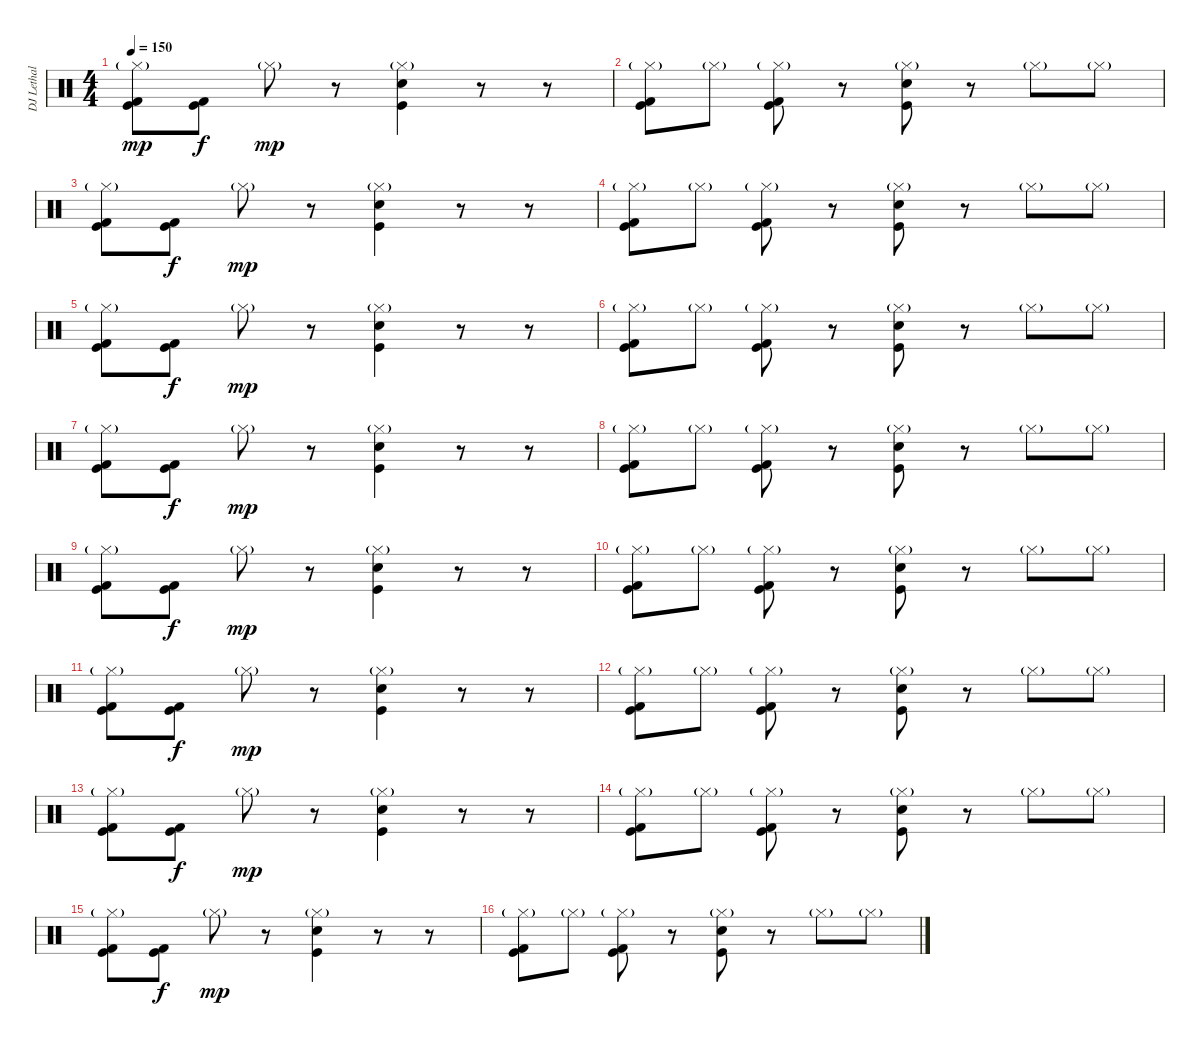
\track ("DJ Lethal (Beats 2)" "DJ Lethal ") {instrument percussion}
\staff {score}
\articulation defaults
\ts (4 4)
\tempo 150
\clef neutral
\ks c
("Hi-Hat (closed)"{g} "Kick (hit) 2" "Kick (hit)").8{dy mp} ("Kick (hit) 2" "Kick (hit)").8{dy f} "Hi-Hat (closed)"{g}.8{dy mp} r.8 ("Hi-Hat (closed)"{g} "Snare (hit) 2" "Kick (hit)").4 r.8 r.8 |
("Hi-Hat (closed)"{g} "Kick (hit) 2" "Kick (hit)").8 "Hi-Hat (closed)"{g}.8 ("Hi-Hat (closed)"{g} "Kick (hit) 2" "Kick (hit)").8 r.8 ("Hi-Hat (closed)"{g} "Snare (hit) 2" "Kick (hit)").8 r.8 "Hi-Hat (closed)"{g}.8 "Hi-Hat (closed)"{g}.8 |
("Hi-Hat (closed)"{g} "Kick (hit) 2" "Kick (hit)").8 ("Kick (hit) 2" "Kick (hit)").8{dy f} "Hi-Hat (closed)"{g}.8{dy mp} r.8 ("Hi-Hat (closed)"{g} "Snare (hit) 2" "Kick (hit)").4 r.8 r.8 |
("Hi-Hat (closed)"{g} "Kick (hit) 2" "Kick (hit)").8 "Hi-Hat (closed)"{g}.8 ("Hi-Hat (closed)"{g} "Kick (hit) 2" "Kick (hit)").8 r.8 ("Hi-Hat (closed)"{g} "Snare (hit) 2" "Kick (hit)").8 r.8 "Hi-Hat (closed)"{g}.8 "Hi-Hat (closed)"{g}.8 |
("Hi-Hat (closed)"{g} "Kick (hit) 2" "Kick (hit)").8 ("Kick (hit) 2" "Kick (hit)").8{dy f} "Hi-Hat (closed)"{g}.8{dy mp} r.8 ("Hi-Hat (closed)"{g} "Snare (hit) 2" "Kick (hit)").4 r.8 r.8 |
("Hi-Hat (closed)"{g} "Kick (hit) 2" "Kick (hit)").8 "Hi-Hat (closed)"{g}.8 ("Hi-Hat (closed)"{g} "Kick (hit) 2" "Kick (hit)").8 r.8 ("Hi-Hat (closed)"{g} "Snare (hit) 2" "Kick (hit)").8 r.8 "Hi-Hat (closed)"{g}.8 "Hi-Hat (closed)"{g}.8 |
("Hi-Hat (closed)"{g} "Kick (hit) 2" "Kick (hit)").8 ("Kick (hit) 2" "Kick (hit)").8{dy f} "Hi-Hat (closed)"{g}.8{dy mp} r.8 ("Hi-Hat (closed)"{g} "Snare (hit) 2" "Kick (hit)").4 r.8 r.8 |
("Hi-Hat (closed)"{g} "Kick (hit) 2" "Kick (hit)").8 "Hi-Hat (closed)"{g}.8 ("Hi-Hat (closed)"{g} "Kick (hit) 2" "Kick (hit)").8 r.8 ("Hi-Hat (closed)"{g} "Snare (hit) 2" "Kick (hit)").8 r.8 "Hi-Hat (closed)"{g}.8 "Hi-Hat (closed)"{g}.8 |
("Hi-Hat (closed)"{g} "Kick (hit) 2" "Kick (hit)").8 ("Kick (hit) 2" "Kick (hit)").8{dy f} "Hi-Hat (closed)"{g}.8{dy mp} r.8 ("Hi-Hat (closed)"{g} "Snare (hit) 2" "Kick (hit)").4 r.8 r.8 |
("Hi-Hat (closed)"{g} "Kick (hit) 2" "Kick (hit)").8 "Hi-Hat (closed)"{g}.8 ("Hi-Hat (closed)"{g} "Kick (hit) 2" "Kick (hit)").8 r.8 ("Hi-Hat (closed)"{g} "Snare (hit) 2" "Kick (hit)").8 r.8 "Hi-Hat (closed)"{g}.8 "Hi-Hat (closed)"{g}.8 |
("Hi-Hat (closed)"{g} "Kick (hit) 2" "Kick (hit)").8 ("Kick (hit) 2" "Kick (hit)").8{dy f} "Hi-Hat (closed)"{g}.8{dy mp} r.8 ("Hi-Hat (closed)"{g} "Snare (hit) 2" "Kick (hit)").4 r.8 r.8 |
("Hi-Hat (closed)"{g} "Kick (hit) 2" "Kick (hit)").8 "Hi-Hat (closed)"{g}.8 ("Hi-Hat (closed)"{g} "Kick (hit) 2" "Kick (hit)").8 r.8 ("Hi-Hat (closed)"{g} "Snare (hit) 2" "Kick (hit)").8 r.8 "Hi-Hat (closed)"{g}.8 "Hi-Hat (closed)"{g}.8 |
("Hi-Hat (closed)"{g} "Kick (hit) 2" "Kick (hit)").8 ("Kick (hit) 2" "Kick (hit)").8{dy f} "Hi-Hat (closed)"{g}.8{dy mp} r.8 ("Hi-Hat (closed)"{g} "Snare (hit) 2" "Kick (hit)").4 r.8 r.8 |
("Hi-Hat (closed)"{g} "Kick (hit) 2" "Kick (hit)").8 "Hi-Hat (closed)"{g}.8 ("Hi-Hat (closed)"{g} "Kick (hit) 2" "Kick (hit)").8 r.8 ("Hi-Hat (closed)"{g} "Snare (hit) 2" "Kick (hit)").8 r.8 "Hi-Hat (closed)"{g}.8 "Hi-Hat (closed)"{g}.8 |
("Hi-Hat (closed)"{g} "Kick (hit) 2" "Kick (hit)").8 ("Kick (hit) 2" "Kick (hit)").8{dy f} "Hi-Hat (closed)"{g}.8{dy mp} r.8 ("Hi-Hat (closed)"{g} "Snare (hit) 2" "Kick (hit)").4 r.8 r.8 |
("Hi-Hat (closed)"{g} "Kick (hit) 2" "Kick (hit)").8 "Hi-Hat (closed)"{g}.8 ("Hi-Hat (closed)"{g} "Kick (hit) 2" "Kick (hit)").8 r.8 ("Hi-Hat (closed)"{g} "Snare (hit) 2" "Kick (hit)").8 r.8 "Hi-Hat (closed)"{g}.8 "Hi-Hat (closed)"{g}.8
